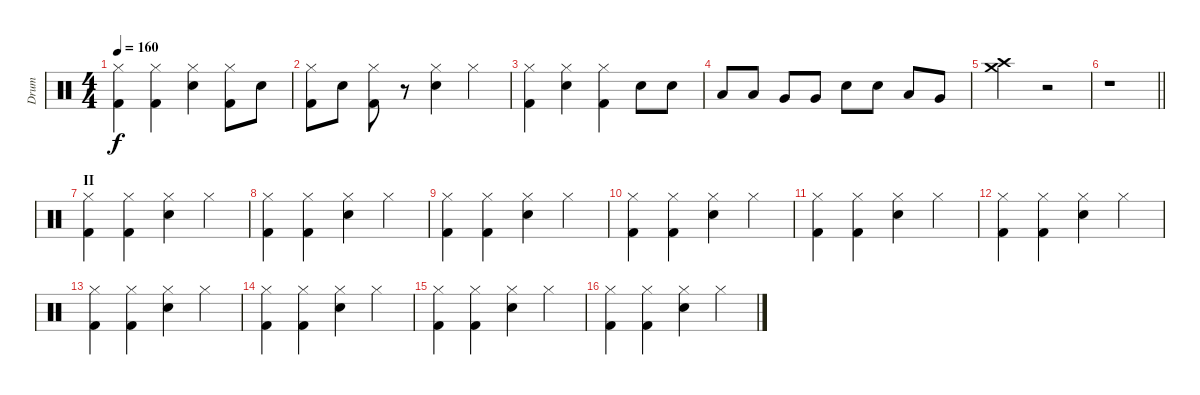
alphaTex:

\track ("Drum" "Drum") {instrument percussion}
\staff {score}
\articulation defaults
\ts (4 4)
\tempo 160
\clef neutral
\ks c
("Hi-Hat (closed)" "Kick (hit) 2").4{dy f} ("Hi-Hat (closed)" "Kick (hit) 2").4 ("Hi-Hat (closed)" "Electric Snare (hit)").4 ("Hi-Hat (closed)" "Kick (hit) 2").8 "Electric Snare (hit)".8 |
("Hi-Hat (closed)" "Kick (hit) 2").8 "Electric Snare (hit)".8 ("Hi-Hat (closed)" "Kick (hit) 2").8 r.8 ("Hi-Hat (closed)" "Electric Snare (hit)").4 "Hi-Hat (closed)".4 |
("Hi-Hat (closed)" "Kick (hit) 2").4 ("Hi-Hat (closed)" "Electric Snare (hit)").4 ("Hi-Hat (closed)" "Kick (hit) 2").4 "Electric Snare (hit)".8 "Electric Snare (hit)".8 |
"Low Floor Tom (hit)".8 "Low Floor Tom (hit)".8 "Very Low Tom (hit)".8 "Very Low Tom (hit)".8 "Electric Snare (hit)".8 "Electric Snare (hit)".8 "Low Floor Tom (hit)".8 "Very Low Tom (hit)".8 |
("Crash high (hit)" "Crash medium (hit)").2 r.2 |
\barLineRight lightlight
r.1 |
\section ("" "II")
("Hi-Hat (closed)" "Kick (hit) 2").4 ("Hi-Hat (closed)" "Kick (hit) 2").4 ("Hi-Hat (closed)" "Electric Snare (hit)").4 "Hi-Hat (closed)".4 |
("Hi-Hat (closed)" "Kick (hit) 2").4 ("Hi-Hat (closed)" "Kick (hit) 2").4 ("Hi-Hat (closed)" "Electric Snare (hit)").4 "Hi-Hat (closed)".4 |
("Hi-Hat (closed)" "Kick (hit) 2").4 ("Hi-Hat (closed)" "Kick (hit) 2").4 ("Hi-Hat (closed)" "Electric Snare (hit)").4 "Hi-Hat (closed)".4 |
("Hi-Hat (closed)" "Kick (hit) 2").4 ("Hi-Hat (closed)" "Kick (hit) 2").4 ("Hi-Hat (closed)" "Electric Snare (hit)").4 "Hi-Hat (closed)".4 |
("Hi-Hat (closed)" "Kick (hit) 2").4 ("Hi-Hat (closed)" "Kick (hit) 2").4 ("Hi-Hat (closed)" "Electric Snare (hit)").4 "Hi-Hat (closed)".4 |
("Hi-Hat (closed)" "Kick (hit) 2").4 ("Hi-Hat (closed)" "Kick (hit) 2").4 ("Hi-Hat (closed)" "Electric Snare (hit)").4 "Hi-Hat (closed)".4 |
("Hi-Hat (closed)" "Kick (hit) 2").4 ("Hi-Hat (closed)" "Kick (hit) 2").4 ("Hi-Hat (closed)" "Electric Snare (hit)").4 "Hi-Hat (closed)".4 |
("Hi-Hat (closed)" "Kick (hit) 2").4 ("Hi-Hat (closed)" "Kick (hit) 2").4 ("Hi-Hat (closed)" "Electric Snare (hit)").4 "Hi-Hat (closed)".4 |
("Hi-Hat (closed)" "Kick (hit) 2").4 ("Hi-Hat (closed)" "Kick (hit) 2").4 ("Hi-Hat (closed)" "Electric Snare (hit)").4 "Hi-Hat (closed)".4 |
("Hi-Hat (closed)" "Kick (hit) 2").4 ("Hi-Hat (closed)" "Kick (hit) 2").4 ("Hi-Hat (closed)" "Electric Snare (hit)").4 "Hi-Hat (closed)".4
